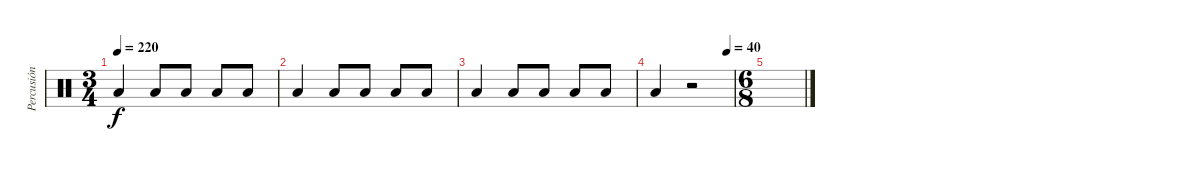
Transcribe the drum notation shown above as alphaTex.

\track ("Percusión" "Percusión") {instrument percussion}
\staff {score}
\articulation defaults
\ts (3 4)
\tempo 220
\clef neutral
\ks c "Low Floor Tom (hit)".4{dy f} "Low Floor Tom (hit)".8 "Low Floor Tom (hit)".8 "Low Floor Tom (hit)".8 "Low Floor Tom (hit)".8
|
"Low Floor Tom (hit)".4 "Low Floor Tom (hit)".8 "Low Floor Tom (hit)".8 "Low Floor Tom (hit)".8 "Low Floor Tom (hit)".8 |
"Low Floor Tom (hit)".4 "Low Floor Tom (hit)".8 "Low Floor Tom (hit)".8 "Low Floor Tom (hit)".8 "Low Floor Tom (hit)".8 |
\tempo (40 0.9166666666666666)
"Low Floor Tom (hit)".4 r.2 |
\ts (6 8)
